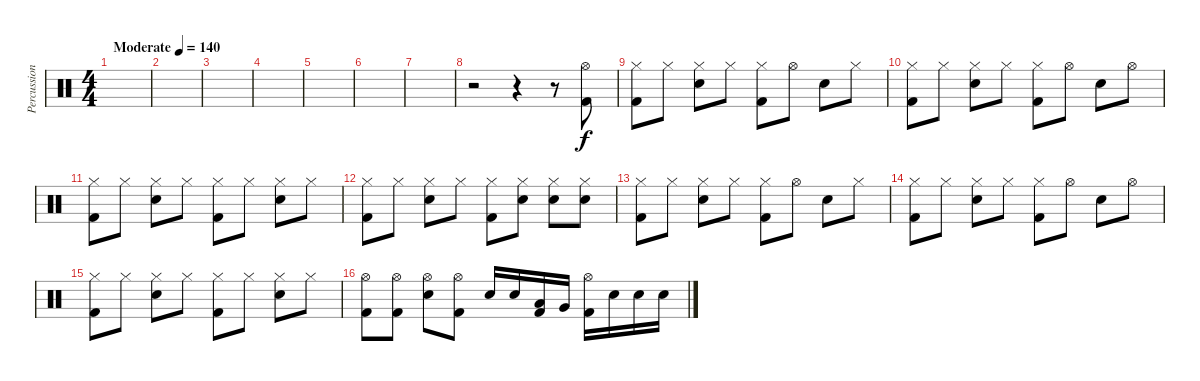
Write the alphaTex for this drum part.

\track ("Percussion" "Percussion") {instrument percussion}
\staff {score}
\articulation defaults
\ts (4 4)
\tempo (140 "Moderate")
\clef neutral
\ks c
|
|
|
|
|
|
|
r.2 r.4 r.8 ("Hi-Hat (open)" "Kick (hit) 2").8 |
("Hi-Hat (closed)" "Kick (hit) 2").8 "Hi-Hat (closed)".8 ("Hi-Hat (closed)" "Electric Snare (hit)").8 "Hi-Hat (closed)".8 ("Hi-Hat (closed)" "Kick (hit) 2").8 "Hi-Hat (open)".8 "Electric Snare (hit)".8 "Hi-Hat (closed)".8 |
("Hi-Hat (closed)" "Kick (hit) 2").8 "Hi-Hat (closed)".8 ("Hi-Hat (closed)" "Electric Snare (hit)").8 "Hi-Hat (closed)".8 ("Hi-Hat (closed)" "Kick (hit) 2").8 "Hi-Hat (open)".8 "Electric Snare (hit)".8 "Hi-Hat (open)".8 |
("Hi-Hat (closed)" "Kick (hit) 2").8 "Hi-Hat (closed)".8 ("Hi-Hat (closed)" "Electric Snare (hit)").8 "Hi-Hat (closed)".8 ("Hi-Hat (closed)" "Kick (hit) 2").8 "Hi-Hat (closed)".8 ("Hi-Hat (closed)" "Electric Snare (hit)").8 "Hi-Hat (closed)".8 |
("Hi-Hat (closed)" "Kick (hit) 2").8 "Hi-Hat (closed)".8 ("Hi-Hat (closed)" "Electric Snare (hit)").8 "Hi-Hat (closed)".8 ("Hi-Hat (closed)" "Kick (hit) 2").8 ("Hi-Hat (closed)" "Electric Snare (hit)").8 ("Hi-Hat (closed)" "Electric Snare (hit)").8 ("Hi-Hat (closed)" "Electric Snare (hit)").8 |
("Hi-Hat (closed)" "Kick (hit) 2").8 "Hi-Hat (closed)".8 ("Hi-Hat (closed)" "Electric Snare (hit)").8 "Hi-Hat (closed)".8 ("Hi-Hat (closed)" "Kick (hit) 2").8 "Hi-Hat (open)".8 "Electric Snare (hit)".8 "Hi-Hat (closed)".8 |
("Hi-Hat (closed)" "Kick (hit) 2").8 "Hi-Hat (closed)".8 ("Hi-Hat (closed)" "Electric Snare (hit)").8 "Hi-Hat (closed)".8 ("Hi-Hat (closed)" "Kick (hit) 2").8 "Hi-Hat (open)".8 "Electric Snare (hit)".8 "Hi-Hat (open)".8 |
("Hi-Hat (closed)" "Kick (hit) 2").8 "Hi-Hat (closed)".8 ("Hi-Hat (closed)" "Electric Snare (hit)").8 "Hi-Hat (closed)".8 ("Hi-Hat (closed)" "Kick (hit) 2").8 "Hi-Hat (closed)".8 ("Hi-Hat (closed)" "Electric Snare (hit)").8 "Hi-Hat (closed)".8 |
("Hi-Hat (open)" "Kick (hit) 2").8 ("Hi-Hat (open)" "Kick (hit) 2").8 ("Hi-Hat (open)" "Electric Snare (hit)").8 ("Hi-Hat (open)" "Kick (hit) 2").8 "Electric Snare (hit)".16 "Electric Snare (hit)".16 ("Low Tom (hit)" "Kick (hit) 2").16 "Very Low Tom (hit)".16 ("Hi-Hat (open)" "Kick (hit) 2").16 "Electric Snare (hit)".16 "Electric Snare (hit)".16 "Electric Snare (hit)".16
